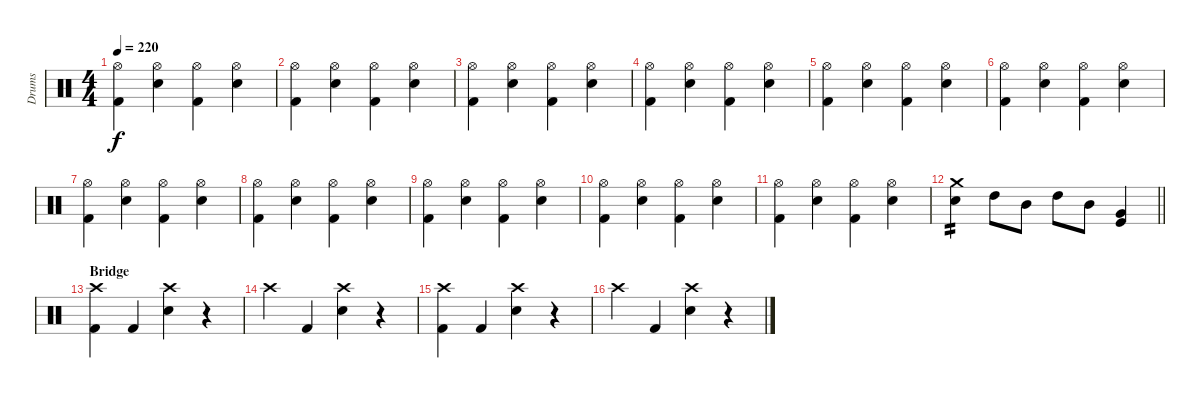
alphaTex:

\track ("Drums" "Drums") {instrument percussion}
\staff {score}
\articulation defaults
\ts (4 4)
\tempo 220
\clef neutral
\ks c
("Hi-Hat (open)" "Kick (hit) 2").4{dy f} ("Hi-Hat (open)" "Electric Snare (hit)").4 ("Hi-Hat (open)" "Kick (hit) 2").4 ("Hi-Hat (open)" "Electric Snare (hit)").4 |
("Hi-Hat (open)" "Kick (hit) 2").4 ("Hi-Hat (open)" "Electric Snare (hit)").4 ("Hi-Hat (open)" "Kick (hit) 2").4 ("Hi-Hat (open)" "Electric Snare (hit)").4 |
("Hi-Hat (open)" "Kick (hit) 2").4 ("Hi-Hat (open)" "Electric Snare (hit)").4 ("Hi-Hat (open)" "Kick (hit) 2").4 ("Hi-Hat (open)" "Electric Snare (hit)").4 |
("Hi-Hat (open)" "Kick (hit) 2").4 ("Hi-Hat (open)" "Electric Snare (hit)").4 ("Hi-Hat (open)" "Kick (hit) 2").4 ("Hi-Hat (open)" "Electric Snare (hit)").4 |
("Hi-Hat (open)" "Kick (hit) 2").4 ("Hi-Hat (open)" "Electric Snare (hit)").4 ("Hi-Hat (open)" "Kick (hit) 2").4 ("Hi-Hat (open)" "Electric Snare (hit)").4 |
("Hi-Hat (open)" "Kick (hit) 2").4 ("Hi-Hat (open)" "Electric Snare (hit)").4 ("Hi-Hat (open)" "Kick (hit) 2").4 ("Hi-Hat (open)" "Electric Snare (hit)").4 |
("Hi-Hat (open)" "Kick (hit) 2").4 ("Hi-Hat (open)" "Electric Snare (hit)").4 ("Hi-Hat (open)" "Kick (hit) 2").4 ("Hi-Hat (open)" "Electric Snare (hit)").4 |
("Hi-Hat (open)" "Kick (hit) 2").4 ("Hi-Hat (open)" "Electric Snare (hit)").4 ("Hi-Hat (open)" "Kick (hit) 2").4 ("Hi-Hat (open)" "Electric Snare (hit)").4 |
("Hi-Hat (open)" "Kick (hit) 2").4 ("Hi-Hat (open)" "Electric Snare (hit)").4 ("Hi-Hat (open)" "Kick (hit) 2").4 ("Hi-Hat (open)" "Electric Snare (hit)").4 |
("Hi-Hat (open)" "Kick (hit) 2").4 ("Hi-Hat (open)" "Electric Snare (hit)").4 ("Hi-Hat (open)" "Kick (hit) 2").4 ("Hi-Hat (open)" "Electric Snare (hit)").4 |
("Hi-Hat (open)" "Kick (hit) 2").4 ("Hi-Hat (open)" "Electric Snare (hit)").4 ("Hi-Hat (open)" "Kick (hit) 2").4 ("Hi-Hat (open)" "Electric Snare (hit)").4 |
\barLineRight lightlight
("Crash medium (hit)" "Snare (hit) 2").4{tp 2} "High Tom (hit)".8 "Mid Tom (hit)".8 "High Tom (hit)".8 "Mid Tom (hit)".8 ("Very Low Tom (hit)" "Kick (hit)").4 |
\section ("" "Bridge")
("Crash high (hit)" "Kick (hit) 2").4 "Kick (hit) 2".4 ("Crash high (hit)" "Electric Snare (hit)").4 r.4 |
"Crash high (hit)".4 "Kick (hit) 2".4 ("Crash high (hit)" "Electric Snare (hit)").4 r.4 |
("Crash high (hit)" "Kick (hit) 2").4 "Kick (hit) 2".4 ("Crash high (hit)" "Electric Snare (hit)").4 r.4 |
"Crash high (hit)".4 "Kick (hit) 2".4 ("Crash high (hit)" "Electric Snare (hit)").4 r.4
